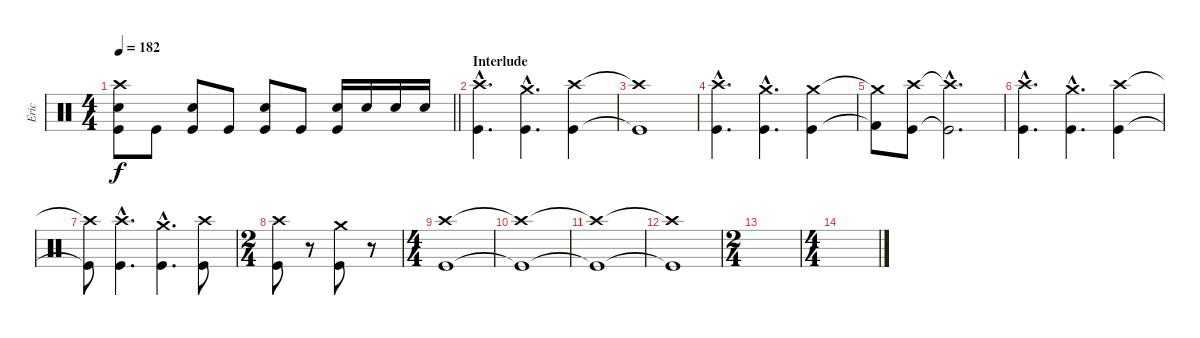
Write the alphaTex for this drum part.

\track ("Eric" "Eric") {instrument percussion}
\staff {score}
\articulation defaults
\ts (4 4)
\tempo 182
\clef neutral
\barLineRight lightlight
\ks c
("Crash high (hit)" "Snare (hit) 2" "Kick (hit)").8{dy f} "Kick (hit)".8 ("Snare (hit) 2" "Kick (hit)").8 "Kick (hit)".8 ("Snare (hit) 2" "Kick (hit)").8 "Kick (hit)".8 ("Snare (hit) 2" "Kick (hit)").16 "Snare (hit) 2".16 "Snare (hit) 2".16 "Snare (hit) 2".16 |
\section ("" "Interlude")
("Crash high (hit)"{hac} "Kick (hit)"{hac}).4{d} ("Crash medium (hit)"{hac} "Kick (hit)"{hac}).4{d} ("Crash high (hit)" "Kick (hit)").4 |
("Crash high (hit)"{t} "Kick (hit)"{t}).1 |
("Crash high (hit)"{hac} "Kick (hit)"{hac}).4{d} ("Crash medium (hit)"{hac} "Kick (hit)"{hac}).4{d} ("Crash medium (hit)" "Kick (hit)").4 |
("Crash medium (hit)"{t} "Kick (hit) 2"{t}).8 ("Crash high (hit)" "Kick (hit)").8 ("Crash high (hit)"{hac t} "Kick (hit)"{hac t}).2{d} |
("Crash high (hit)"{hac} "Kick (hit)"{hac}).4{d} ("Crash medium (hit)"{hac} "Kick (hit)"{hac}).4{d} ("Crash high (hit)" "Kick (hit)").4 |
("Crash high (hit)"{t} "Kick (hit)"{t}).8 ("Crash high (hit)"{hac} "Kick (hit)"{hac}).4{d} ("Crash medium (hit)"{hac} "Kick (hit)"{hac}).4{d} ("Crash high (hit)" "Kick (hit)").8 |
\ts (2 4)
("Crash high (hit)" "Kick (hit)").8 r.8 ("Crash medium (hit)" "Kick (hit)").8 r.8 |
\ts (4 4)
("Crash high (hit)" "Kick (hit)").1 |
("Crash high (hit)"{t} "Kick (hit)"{t}).1 |
("Crash high (hit)"{t} "Kick (hit)"{t}).1 |
("Crash high (hit)"{t} "Kick (hit)"{t}).1 |
\ts (2 4)
|
\ts (4 4)
